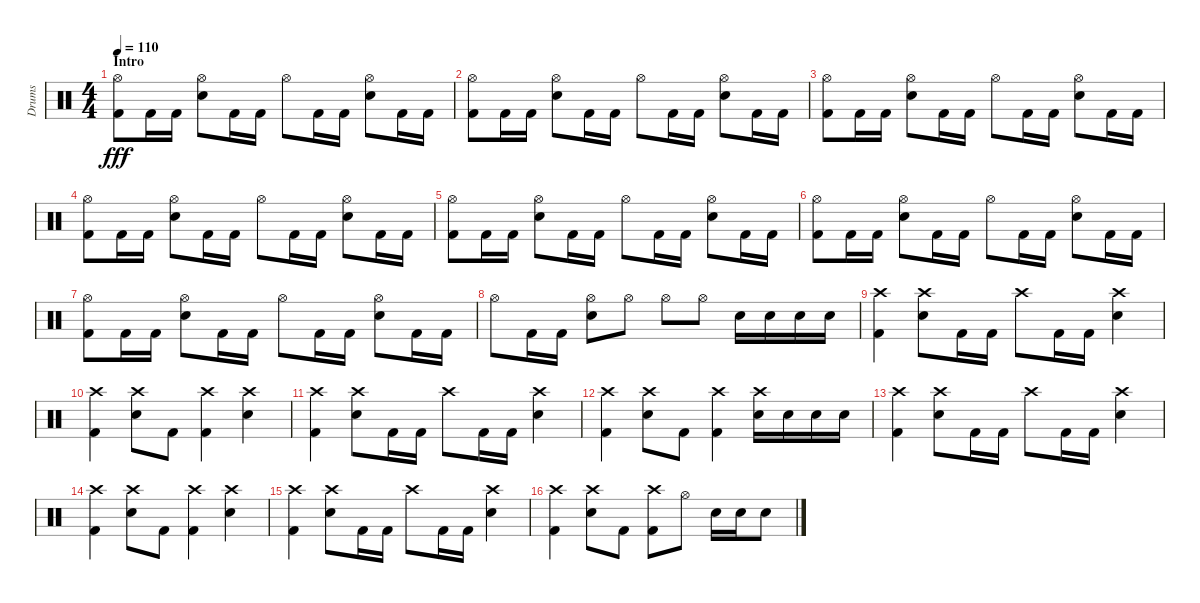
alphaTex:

\track ("Drums" "Drums") {instrument percussion}
\staff {score}
\articulation defaults
\ts (4 4)
\section ("" "Intro")
\tempo 110
\clef neutral
\ks c
("Hi-Hat (open)" "Kick (hit) 2").8{dy fff volume 1} "Kick (hit) 2".16{volume 5} "Kick (hit) 2".16 ("Hi-Hat (open)" "Electric Snare (hit)").8 "Kick (hit) 2".16 "Kick (hit) 2".16 "Hi-Hat (open)".8 "Kick (hit) 2".16 "Kick (hit) 2".16 ("Hi-Hat (open)" "Electric Snare (hit)").8 "Kick (hit) 2".16 "Kick (hit) 2".16 |
("Hi-Hat (open)" "Kick (hit) 2").8 "Kick (hit) 2".16 "Kick (hit) 2".16 ("Hi-Hat (open)" "Electric Snare (hit)").8 "Kick (hit) 2".16 "Kick (hit) 2".16 "Hi-Hat (open)".8 "Kick (hit) 2".16 "Kick (hit) 2".16 ("Hi-Hat (open)" "Electric Snare (hit)").8 "Kick (hit) 2".16 "Kick (hit) 2".16 |
("Hi-Hat (open)" "Kick (hit) 2").8{volume 8} "Kick (hit) 2".16 "Kick (hit) 2".16 ("Hi-Hat (open)" "Electric Snare (hit)").8 "Kick (hit) 2".16 "Kick (hit) 2".16 "Hi-Hat (open)".8 "Kick (hit) 2".16 "Kick (hit) 2".16 ("Hi-Hat (open)" "Electric Snare (hit)").8 "Kick (hit) 2".16 "Kick (hit) 2".16 |
("Hi-Hat (open)" "Kick (hit) 2").8 "Kick (hit) 2".16 "Kick (hit) 2".16 ("Hi-Hat (open)" "Electric Snare (hit)").8 "Kick (hit) 2".16 "Kick (hit) 2".16 "Hi-Hat (open)".8 "Kick (hit) 2".16 "Kick (hit) 2".16 ("Hi-Hat (open)" "Electric Snare (hit)").8 "Kick (hit) 2".16 "Kick (hit) 2".16 |
("Hi-Hat (open)" "Kick (hit) 2").8{volume 12} "Kick (hit) 2".16 "Kick (hit) 2".16 ("Hi-Hat (open)" "Electric Snare (hit)").8 "Kick (hit) 2".16 "Kick (hit) 2".16 "Hi-Hat (open)".8 "Kick (hit) 2".16 "Kick (hit) 2".16 ("Hi-Hat (open)" "Electric Snare (hit)").8 "Kick (hit) 2".16 "Kick (hit) 2".16 |
("Hi-Hat (open)" "Kick (hit) 2").8 "Kick (hit) 2".16 "Kick (hit) 2".16 ("Hi-Hat (open)" "Electric Snare (hit)").8 "Kick (hit) 2".16 "Kick (hit) 2".16 "Hi-Hat (open)".8 "Kick (hit) 2".16 "Kick (hit) 2".16 ("Hi-Hat (open)" "Electric Snare (hit)").8 "Kick (hit) 2".16 "Kick (hit) 2".16 |
("Hi-Hat (open)" "Kick (hit) 2").8{volume 16} "Kick (hit) 2".16 "Kick (hit) 2".16 ("Hi-Hat (open)" "Electric Snare (hit)").8 "Kick (hit) 2".16 "Kick (hit) 2".16 "Hi-Hat (open)".8 "Kick (hit) 2".16 "Kick (hit) 2".16 ("Hi-Hat (open)" "Electric Snare (hit)").8 "Kick (hit) 2".16 "Kick (hit) 2".16 |
"Hi-Hat (open)".8 "Kick (hit) 2".16 "Kick (hit) 2".16 ("Hi-Hat (open)" "Electric Snare (hit)").8 "Hi-Hat (open)".8 "Hi-Hat (open)".8 "Hi-Hat (open)".8 "Electric Snare (hit)".16 "Electric Snare (hit)".16 "Electric Snare (hit)".16 "Electric Snare (hit)".16 |
("Crash high (hit)" "Kick (hit) 2").4 ("Crash high (hit)" "Electric Snare (hit)").8 "Kick (hit) 2".16 "Kick (hit) 2".16 "Crash high (hit)".8 "Kick (hit) 2".16 "Kick (hit) 2".16 ("Crash high (hit)" "Electric Snare (hit)").4 |
("Crash high (hit)" "Kick (hit) 2").4 ("Crash high (hit)" "Electric Snare (hit)").8 "Kick (hit) 2".8 ("Crash high (hit)" "Kick (hit) 2").4 ("Crash high (hit)" "Electric Snare (hit)").4 |
("Crash high (hit)" "Kick (hit) 2").4 ("Crash high (hit)" "Electric Snare (hit)").8 "Kick (hit) 2".16 "Kick (hit) 2".16 "Crash high (hit)".8 "Kick (hit) 2".16 "Kick (hit) 2".16 ("Crash high (hit)" "Electric Snare (hit)").4 |
("Crash high (hit)" "Kick (hit) 2").4 ("Crash high (hit)" "Electric Snare (hit)").8 "Kick (hit) 2".8 ("Crash high (hit)" "Kick (hit) 2").4 ("Crash high (hit)" "Electric Snare (hit)").16 "Electric Snare (hit)".16 "Electric Snare (hit)".16 "Electric Snare (hit)".16 |
("Crash high (hit)" "Kick (hit) 2").4 ("Crash high (hit)" "Electric Snare (hit)").8 "Kick (hit) 2".16 "Kick (hit) 2".16 "Crash high (hit)".8 "Kick (hit) 2".16 "Kick (hit) 2".16 ("Crash high (hit)" "Electric Snare (hit)").4 |
("Crash high (hit)" "Kick (hit) 2").4 ("Crash high (hit)" "Electric Snare (hit)").8 "Kick (hit) 2".8 ("Crash high (hit)" "Kick (hit) 2").4 ("Crash high (hit)" "Electric Snare (hit)").4 |
("Crash high (hit)" "Kick (hit) 2").4 ("Crash high (hit)" "Electric Snare (hit)").8 "Kick (hit) 2".16 "Kick (hit) 2".16 "Crash high (hit)".8 "Kick (hit) 2".16 "Kick (hit) 2".16 ("Crash high (hit)" "Electric Snare (hit)").4 |
("Crash high (hit)" "Kick (hit) 2").4 ("Crash high (hit)" "Electric Snare (hit)").8 "Kick (hit) 2".8 ("Crash high (hit)" "Kick (hit) 2").8 "Hi-Hat (open)".8 "Electric Snare (hit)".16 "Electric Snare (hit)".16 "Electric Snare (hit)".8
